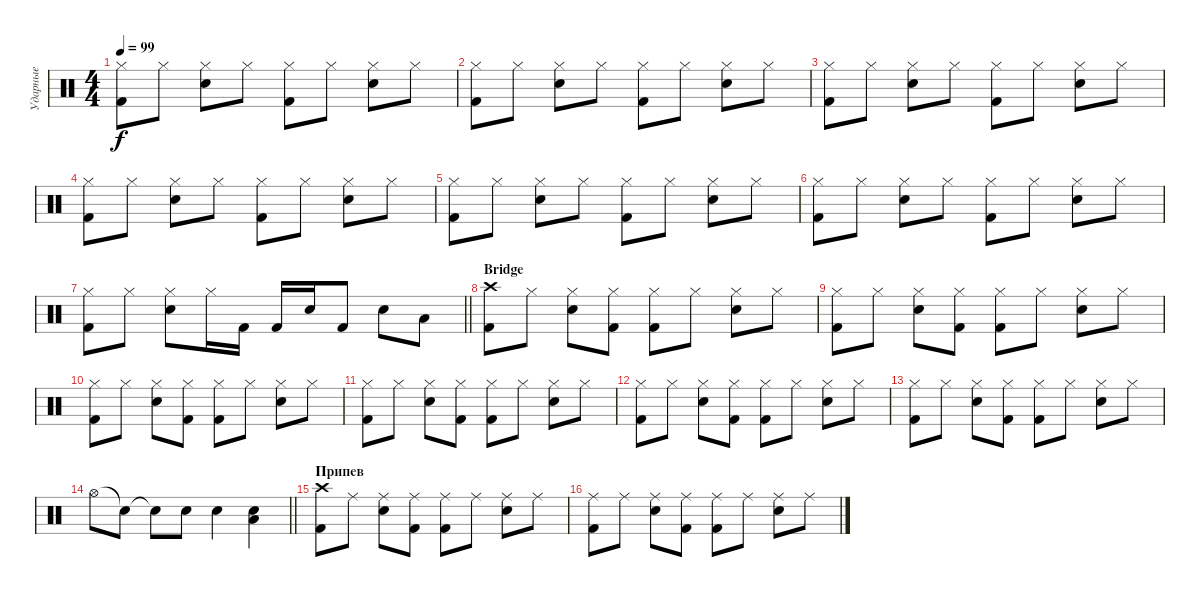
\track ("Ударные" "Ударные") {instrument percussion}
\staff
\articulation defaults
\ts (4 4)
\tempo 99
\clef neutral
\ks c
("Hi-Hat (closed)" "Kick (hit) 2").8{dy f} "Hi-Hat (closed)".8 ("Hi-Hat (closed)" "Electric Snare (hit)").8 "Hi-Hat (closed)".8 ("Hi-Hat (closed)" "Kick (hit) 2").8 "Hi-Hat (closed)".8 ("Hi-Hat (closed)" "Electric Snare (hit)").8 "Hi-Hat (closed)".8 |
("Hi-Hat (closed)" "Kick (hit) 2").8 "Hi-Hat (closed)".8 ("Hi-Hat (closed)" "Electric Snare (hit)").8 "Hi-Hat (closed)".8 ("Hi-Hat (closed)" "Kick (hit) 2").8 "Hi-Hat (closed)".8 ("Hi-Hat (closed)" "Electric Snare (hit)").8 "Hi-Hat (closed)".8 |
("Hi-Hat (closed)" "Kick (hit) 2").8 "Hi-Hat (closed)".8 ("Hi-Hat (closed)" "Electric Snare (hit)").8 "Hi-Hat (closed)".8 ("Hi-Hat (closed)" "Kick (hit) 2").8 "Hi-Hat (closed)".8 ("Hi-Hat (closed)" "Electric Snare (hit)").8 "Hi-Hat (closed)".8 |
("Hi-Hat (closed)" "Kick (hit) 2").8 "Hi-Hat (closed)".8 ("Hi-Hat (closed)" "Electric Snare (hit)").8 "Hi-Hat (closed)".8 ("Hi-Hat (closed)" "Kick (hit) 2").8 "Hi-Hat (closed)".8 ("Hi-Hat (closed)" "Electric Snare (hit)").8 "Hi-Hat (closed)".8 |
("Hi-Hat (closed)" "Kick (hit) 2").8 "Hi-Hat (closed)".8 ("Hi-Hat (closed)" "Electric Snare (hit)").8 "Hi-Hat (closed)".8 ("Hi-Hat (closed)" "Kick (hit) 2").8 "Hi-Hat (closed)".8 ("Hi-Hat (closed)" "Electric Snare (hit)").8 "Hi-Hat (closed)".8 |
("Hi-Hat (closed)" "Kick (hit) 2").8 "Hi-Hat (closed)".8 ("Hi-Hat (closed)" "Electric Snare (hit)").8 "Hi-Hat (closed)".8 ("Hi-Hat (closed)" "Kick (hit) 2").8 "Hi-Hat (closed)".8 ("Hi-Hat (closed)" "Electric Snare (hit)").8 "Hi-Hat (closed)".8 |
\barLineRight lightlight
("Hi-Hat (closed)" "Kick (hit) 2").8 "Hi-Hat (closed)".8 ("Hi-Hat (closed)" "Electric Snare (hit)").8 "Hi-Hat (closed)".16 "Kick (hit) 2".16 "Kick (hit) 2".16 "Electric Snare (hit)".16 "Kick (hit) 2".8 "Electric Snare (hit)".8 "Low Tom (hit)".8 |
\section ("" "Bridge")
("Crash high (hit)" "Kick (hit) 2").8 "Hi-Hat (closed)".8 ("Hi-Hat (closed)" "Electric Snare (hit)").8 ("Hi-Hat (closed)" "Kick (hit) 2").8 ("Hi-Hat (closed)" "Kick (hit) 2").8 "Hi-Hat (closed)".8 ("Hi-Hat (closed)" "Electric Snare (hit)").8 "Hi-Hat (closed)".8 |
("Hi-Hat (closed)" "Kick (hit) 2").8 "Hi-Hat (closed)".8 ("Hi-Hat (closed)" "Electric Snare (hit)").8 ("Hi-Hat (closed)" "Kick (hit) 2").8 ("Hi-Hat (closed)" "Kick (hit) 2").8 "Hi-Hat (closed)".8 ("Hi-Hat (closed)" "Electric Snare (hit)").8 "Hi-Hat (closed)".8 |
("Hi-Hat (closed)" "Kick (hit) 2").8 "Hi-Hat (closed)".8 ("Hi-Hat (closed)" "Electric Snare (hit)").8 ("Hi-Hat (closed)" "Kick (hit) 2").8 ("Hi-Hat (closed)" "Kick (hit) 2").8 "Hi-Hat (closed)".8 ("Hi-Hat (closed)" "Electric Snare (hit)").8 "Hi-Hat (closed)".8 |
("Hi-Hat (closed)" "Kick (hit) 2").8 "Hi-Hat (closed)".8 ("Hi-Hat (closed)" "Electric Snare (hit)").8 ("Hi-Hat (closed)" "Kick (hit) 2").8 ("Hi-Hat (closed)" "Kick (hit) 2").8 "Hi-Hat (closed)".8 ("Hi-Hat (closed)" "Electric Snare (hit)").8 "Hi-Hat (closed)".8 |
("Hi-Hat (closed)" "Kick (hit) 2").8 "Hi-Hat (closed)".8 ("Hi-Hat (closed)" "Electric Snare (hit)").8 ("Hi-Hat (closed)" "Kick (hit) 2").8 ("Hi-Hat (closed)" "Kick (hit) 2").8 "Hi-Hat (closed)".8 ("Hi-Hat (closed)" "Electric Snare (hit)").8 "Hi-Hat (closed)".8 |
("Hi-Hat (closed)" "Kick (hit) 2").8 "Hi-Hat (closed)".8 ("Hi-Hat (closed)" "Electric Snare (hit)").8 ("Hi-Hat (closed)" "Kick (hit) 2").8 ("Hi-Hat (closed)" "Kick (hit) 2").8 "Hi-Hat (closed)".8 ("Hi-Hat (closed)" "Electric Snare (hit)").8 "Hi-Hat (closed)".8 |
\barLineRight lightlight "Hi-Hat (open)".8 "Snare (hit)"{t}.8 "Snare (hit)"{t}.8 "Electric Snare (hit)".8 "Electric Snare (hit)".4
("Electric Snare (hit)" "Low Tom (hit)").4 |
\section ("" "Припев")
("Crash high (hit)" "Kick (hit) 2").8 "Ride (middle)".8 ("Ride (middle)" "Electric Snare (hit)").8 ("Ride (middle)" "Kick (hit) 2").8 ("Ride (middle)" "Kick (hit) 2").8 "Ride (middle)".8 ("Ride (middle)" "Electric Snare (hit)").8 "Ride (middle)".8 |
("Ride (middle)" "Kick (hit) 2").8 "Ride (middle)".8 ("Ride (middle)" "Electric Snare (hit)").8 ("Ride (middle)" "Kick (hit) 2").8 ("Ride (middle)" "Kick (hit) 2").8 "Ride (middle)".8 ("Ride (middle)" "Electric Snare (hit)").8 "Ride (middle)".8
